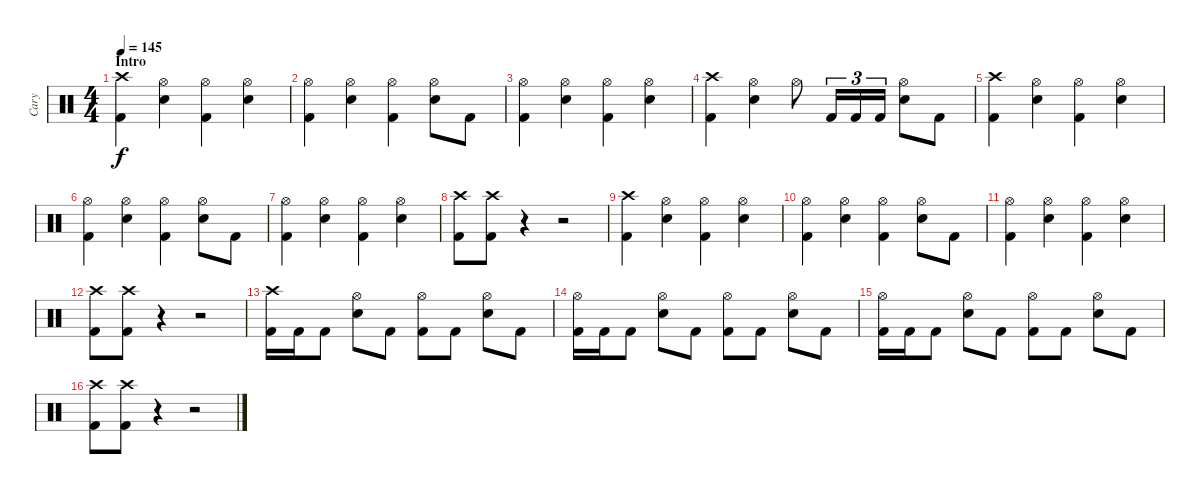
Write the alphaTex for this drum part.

\track ("Cary" "Cary") {instrument percussion}
\staff {score}
\articulation defaults
\ts (4 4)
\section ("" "Intro")
\tempo 145
\clef neutral
\ks c
("Crash high (hit)" "Kick (hit) 2").4{dy f} ("Hi-Hat (open)" "Electric Snare (hit)").4 ("Hi-Hat (open)" "Kick (hit) 2").4 ("Hi-Hat (open)" "Electric Snare (hit)").4 |
("Hi-Hat (open)" "Kick (hit) 2").4 ("Hi-Hat (open)" "Electric Snare (hit)").4 ("Hi-Hat (open)" "Kick (hit) 2").4 ("Hi-Hat (open)" "Electric Snare (hit)").8 "Kick (hit) 2".8 |
("Hi-Hat (open)" "Kick (hit) 2").4 ("Hi-Hat (open)" "Electric Snare (hit)").4 ("Hi-Hat (open)" "Kick (hit) 2").4 ("Hi-Hat (open)" "Electric Snare (hit)").4 |
("Crash high (hit)" "Kick (hit) 2").4 ("Hi-Hat (open)" "Electric Snare (hit)").4 "Hi-Hat (open)".8 "Kick (hit) 2".16{tu (3 2)} "Kick (hit) 2".16{tu (3 2)} "Kick (hit) 2".16{tu (3 2)} ("Hi-Hat (open)" "Electric Snare (hit)").8 "Kick (hit) 2".8 |
("Crash high (hit)" "Kick (hit) 2").4 ("Hi-Hat (open)" "Electric Snare (hit)").4 ("Hi-Hat (open)" "Kick (hit) 2").4 ("Hi-Hat (open)" "Electric Snare (hit)").4 |
("Hi-Hat (open)" "Kick (hit) 2").4 ("Hi-Hat (open)" "Electric Snare (hit)").4 ("Hi-Hat (open)" "Kick (hit) 2").4 ("Hi-Hat (open)" "Electric Snare (hit)").8 "Kick (hit) 2".8 |
("Hi-Hat (open)" "Kick (hit) 2").4 ("Hi-Hat (open)" "Electric Snare (hit)").4 ("Hi-Hat (open)" "Kick (hit) 2").4 ("Hi-Hat (open)" "Electric Snare (hit)").4 |
("Crash high (hit)" "Kick (hit) 2").8 ("Crash high (hit)" "Kick (hit) 2").8 r.4 r.2 |
("Crash high (hit)" "Kick (hit) 2").4 ("Hi-Hat (open)" "Electric Snare (hit)").4 ("Hi-Hat (open)" "Kick (hit) 2").4 ("Hi-Hat (open)" "Electric Snare (hit)").4 |
("Hi-Hat (open)" "Kick (hit) 2").4 ("Hi-Hat (open)" "Electric Snare (hit)").4 ("Hi-Hat (open)" "Kick (hit) 2").4 ("Hi-Hat (open)" "Electric Snare (hit)").8 "Kick (hit) 2".8 |
("Hi-Hat (open)" "Kick (hit) 2").4 ("Hi-Hat (open)" "Electric Snare (hit)").4 ("Hi-Hat (open)" "Kick (hit) 2").4 ("Hi-Hat (open)" "Electric Snare (hit)").4 |
("Crash high (hit)" "Kick (hit) 2").8 ("Crash high (hit)" "Kick (hit) 2").8 r.4 r.2 |
("Crash high (hit)" "Kick (hit) 2").16 "Kick (hit) 2".16 "Kick (hit) 2".8 ("Hi-Hat (open)" "Electric Snare (hit)").8 "Kick (hit) 2".8 ("Hi-Hat (open)" "Kick (hit) 2").8 "Kick (hit) 2".8 ("Hi-Hat (open)" "Electric Snare (hit)").8 "Kick (hit) 2".8 |
("Hi-Hat (open)" "Kick (hit) 2").16 "Kick (hit) 2".16 "Kick (hit) 2".8 ("Hi-Hat (open)" "Electric Snare (hit)").8 "Kick (hit) 2".8 ("Hi-Hat (open)" "Kick (hit) 2").8 "Kick (hit) 2".8 ("Hi-Hat (open)" "Electric Snare (hit)").8 "Kick (hit) 2".8 |
("Hi-Hat (open)" "Kick (hit) 2").16 "Kick (hit) 2".16 "Kick (hit) 2".8 ("Hi-Hat (open)" "Electric Snare (hit)").8 "Kick (hit) 2".8 ("Hi-Hat (open)" "Kick (hit) 2").8 "Kick (hit) 2".8 ("Hi-Hat (open)" "Electric Snare (hit)").8 "Kick (hit) 2".8 |
("Crash high (hit)" "Kick (hit) 2").8 ("Crash high (hit)" "Kick (hit) 2").8 r.4 r.2
